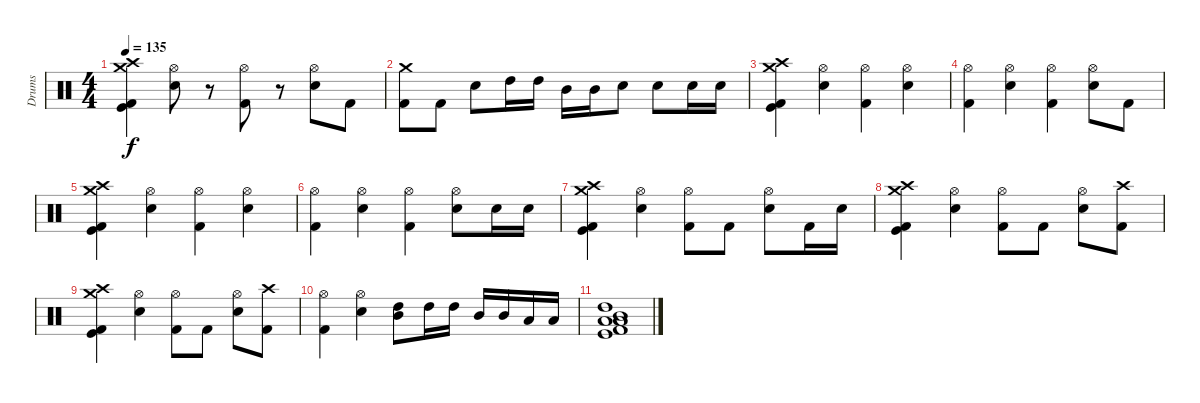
\track ("Drums" "Drums") {instrument percussion}
\staff {score}
\articulation defaults
\ts (4 4)
\tempo 135
\clef neutral
\ks c
("Crash medium (hit)" "Crash high (hit)" "Kick (hit) 2" "Kick (hit)").4{dy f} ("Hi-Hat (open)" "Snare (hit) 2").8 r.8 ("Hi-Hat (open)" "Kick (hit) 2").8 r.8 ("Hi-Hat (open)" "Snare (hit) 2").8 "Kick (hit) 2".8 |
("Crash medium (hit)" "Kick (hit) 2").8 "Kick (hit) 2".8 "Snare (hit) 2".8 "High Tom (hit)".16 "High Tom (hit)".16 "Mid Tom (hit)".16 "Mid Tom (hit)".16 "Snare (hit) 2".8 "Snare (hit) 2".8 "Snare (hit) 2".16 "Snare (hit) 2".16 |
("Crash high (hit)" "Crash medium (hit)" "Kick (hit) 2" "Kick (hit)").4 ("Hi-Hat (open)" "Snare (hit) 2").4 ("Hi-Hat (open)" "Kick (hit) 2").4 ("Hi-Hat (open)" "Snare (hit) 2").4 |
("Hi-Hat (open)" "Kick (hit) 2").4 ("Hi-Hat (open)" "Snare (hit) 2").4 ("Hi-Hat (open)" "Kick (hit) 2").4 ("Hi-Hat (open)" "Snare (hit) 2").8 "Kick (hit) 2".8 |
("Crash medium (hit)" "Crash high (hit)" "Kick (hit)" "Kick (hit) 2").4 ("Hi-Hat (open)" "Snare (hit) 2").4 ("Hi-Hat (open)" "Kick (hit) 2").4 ("Hi-Hat (open)" "Snare (hit) 2").4 |
("Hi-Hat (open)" "Kick (hit) 2").4 ("Hi-Hat (open)" "Snare (hit) 2").4 ("Hi-Hat (open)" "Kick (hit) 2").4 ("Hi-Hat (open)" "Snare (hit) 2").8 "Snare (hit) 2".16 "Snare (hit) 2".16 |
("Crash medium (hit)" "Crash high (hit)" "Kick (hit)" "Kick (hit) 2").4 ("Hi-Hat (open)" "Snare (hit) 2").4 ("Hi-Hat (open)" "Kick (hit) 2").8 "Kick (hit) 2".8 ("Hi-Hat (open)" "Snare (hit) 2").8 "Kick (hit) 2".16 "Snare (hit) 2".16 |
("Crash medium (hit)" "Crash high (hit)" "Kick (hit)" "Kick (hit) 2").4 ("Hi-Hat (open)" "Snare (hit) 2").4 ("Hi-Hat (open)" "Kick (hit) 2").8 "Kick (hit) 2".8 ("Hi-Hat (open)" "Snare (hit) 2").8 ("Crash high (hit)" "Kick (hit) 2").8 |
("Crash medium (hit)" "Crash high (hit)" "Kick (hit)" "Kick (hit) 2").4 ("Hi-Hat (open)" "Snare (hit) 2").4 ("Hi-Hat (open)" "Kick (hit) 2").8 "Kick (hit) 2".8 ("Hi-Hat (open)" "Snare (hit) 2").8 ("Crash high (hit)" "Kick (hit) 2").8 |
("Hi-Hat (open)" "Kick (hit) 2").4 ("Hi-Hat (open)" "Snare (hit) 2").4 ("High Tom (hit)" "Mid Tom (hit)").8 "High Tom (hit)".16 "High Tom (hit)".16 "Mid Tom (hit)".16 "Mid Tom (hit)".16 "Low Tom (hit)".16 "Low Tom (hit)".16 |
("Low Tom (hit)" "Low Floor Tom (hit)" "Kick (hit)" "Mid Tom (hit)" "High Tom (hit)" "Kick (hit) 2").1
